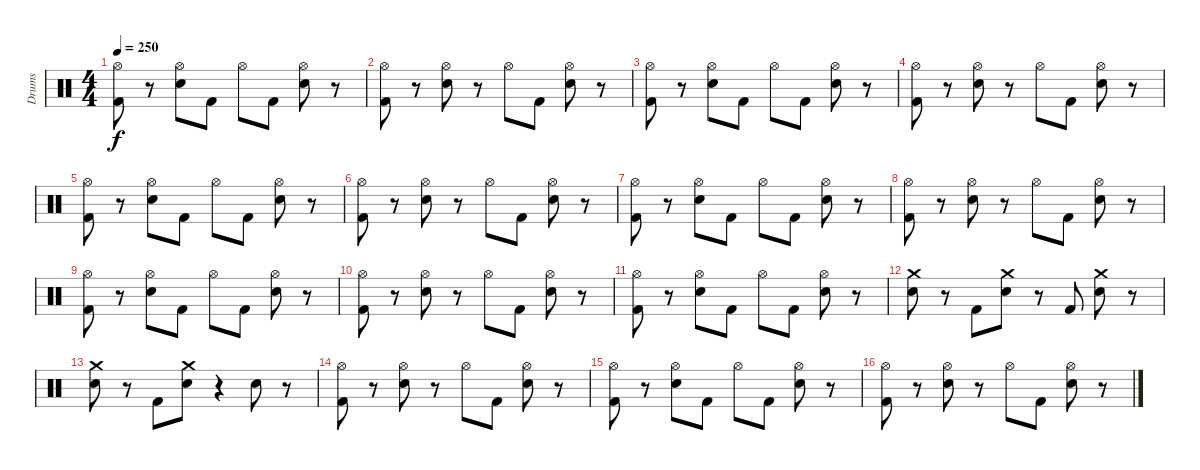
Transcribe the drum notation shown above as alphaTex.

\track ("Drums" "Drums") {instrument percussion}
\staff {score}
\articulation defaults
\ts (4 4)
\tempo 250
\clef neutral
\ks c
("Hi-Hat (open)" "Kick (hit) 2").8{dy f} r.8 ("Hi-Hat (open)" "Electric Snare (hit)").8 "Kick (hit) 2".8 "Hi-Hat (open)".8 "Kick (hit) 2".8 ("Hi-Hat (open)" "Electric Snare (hit)").8 r.8 |
("Hi-Hat (open)" "Kick (hit) 2").8 r.8 ("Hi-Hat (open)" "Electric Snare (hit)").8 r.8 "Hi-Hat (open)".8 "Kick (hit) 2".8 ("Hi-Hat (open)" "Electric Snare (hit)").8 r.8 |
("Hi-Hat (open)" "Kick (hit) 2").8 r.8 ("Hi-Hat (open)" "Electric Snare (hit)").8 "Kick (hit) 2".8 "Hi-Hat (open)".8 "Kick (hit) 2".8 ("Hi-Hat (open)" "Electric Snare (hit)").8 r.8 |
("Hi-Hat (open)" "Kick (hit) 2").8 r.8 ("Hi-Hat (open)" "Electric Snare (hit)").8 r.8 "Hi-Hat (open)".8 "Kick (hit) 2".8 ("Hi-Hat (open)" "Electric Snare (hit)").8 r.8 |
("Hi-Hat (open)" "Kick (hit) 2").8 r.8 ("Hi-Hat (open)" "Electric Snare (hit)").8 "Kick (hit) 2".8 "Hi-Hat (open)".8 "Kick (hit) 2".8 ("Hi-Hat (open)" "Electric Snare (hit)").8 r.8 |
("Hi-Hat (open)" "Kick (hit) 2").8 r.8 ("Hi-Hat (open)" "Electric Snare (hit)").8 r.8 "Hi-Hat (open)".8 "Kick (hit) 2".8 ("Hi-Hat (open)" "Electric Snare (hit)").8 r.8 |
("Hi-Hat (open)" "Kick (hit) 2").8 r.8 ("Hi-Hat (open)" "Electric Snare (hit)").8 "Kick (hit) 2".8 "Hi-Hat (open)".8 "Kick (hit) 2".8 ("Hi-Hat (open)" "Electric Snare (hit)").8 r.8 |
("Hi-Hat (open)" "Kick (hit) 2").8 r.8 ("Hi-Hat (open)" "Electric Snare (hit)").8 r.8 "Hi-Hat (open)".8 "Kick (hit) 2".8 ("Hi-Hat (open)" "Electric Snare (hit)").8 r.8 |
("Hi-Hat (open)" "Kick (hit) 2").8 r.8 ("Hi-Hat (open)" "Electric Snare (hit)").8 "Kick (hit) 2".8 "Hi-Hat (open)".8 "Kick (hit) 2".8 ("Hi-Hat (open)" "Electric Snare (hit)").8 r.8 |
("Hi-Hat (open)" "Kick (hit) 2").8 r.8 ("Hi-Hat (open)" "Electric Snare (hit)").8 r.8 "Hi-Hat (open)".8 "Kick (hit) 2".8 ("Hi-Hat (open)" "Electric Snare (hit)").8 r.8 |
("Hi-Hat (open)" "Kick (hit) 2").8 r.8 ("Hi-Hat (open)" "Electric Snare (hit)").8 "Kick (hit) 2".8 "Hi-Hat (open)".8 "Kick (hit) 2".8 ("Hi-Hat (open)" "Electric Snare (hit)").8 r.8 |
("Electric Snare (hit)" "Crash medium (hit)").8 r.8 "Kick (hit) 2".8 ("Electric Snare (hit)" "Crash medium (hit)").8 r.8 "Kick (hit) 2".8 ("Crash medium (hit)" "Electric Snare (hit)").8 r.8 |
("Electric Snare (hit)" "Crash medium (hit)").8 r.8 "Kick (hit) 2".8 ("Electric Snare (hit)" "Crash medium (hit)").8 r.4 "Electric Snare (hit)".8 r.8 |
("Hi-Hat (open)" "Kick (hit) 2").8 r.8 ("Hi-Hat (open)" "Electric Snare (hit)").8 r.8 "Hi-Hat (open)".8 "Kick (hit) 2".8 ("Hi-Hat (open)" "Electric Snare (hit)").8 r.8 |
("Hi-Hat (open)" "Kick (hit) 2").8 r.8 ("Hi-Hat (open)" "Electric Snare (hit)").8 "Kick (hit) 2".8 "Hi-Hat (open)".8 "Kick (hit) 2".8 ("Hi-Hat (open)" "Electric Snare (hit)").8 r.8 |
("Hi-Hat (open)" "Kick (hit) 2").8 r.8 ("Hi-Hat (open)" "Electric Snare (hit)").8 r.8 "Hi-Hat (open)".8 "Kick (hit) 2".8 ("Hi-Hat (open)" "Electric Snare (hit)").8 r.8
